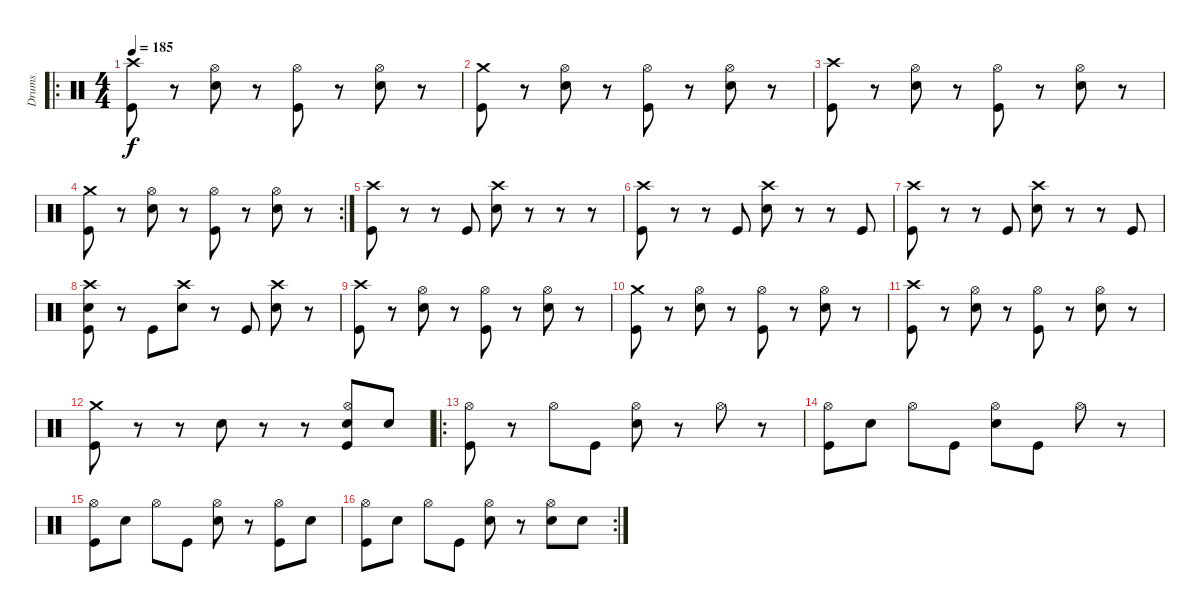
\track ("Drums" "Drums") {instrument percussion}
\staff {score}
\articulation defaults
\ro
\ts (4 4)
\tempo 185
\clef neutral
\ks c
("Crash high (hit)" "Kick (hit)").8{dy f} r.8 ("Hi-Hat (open)" "Snare (hit) 2").8 r.8 ("Hi-Hat (open)" "Kick (hit)").8 r.8 ("Hi-Hat (open)" "Snare (hit) 2").8 r.8 |
("Crash medium (hit)" "Kick (hit)").8 r.8 ("Hi-Hat (open)" "Snare (hit) 2").8 r.8 ("Hi-Hat (open)" "Kick (hit)").8 r.8 ("Hi-Hat (open)" "Snare (hit) 2").8 r.8 |
("Crash high (hit)" "Kick (hit)").8 r.8 ("Hi-Hat (open)" "Snare (hit) 2").8 r.8 ("Hi-Hat (open)" "Kick (hit)").8 r.8 ("Hi-Hat (open)" "Snare (hit) 2").8 r.8 |
\rc 2
("Crash medium (hit)" "Kick (hit)").8 r.8 ("Hi-Hat (open)" "Snare (hit) 2").8 r.8 ("Hi-Hat (open)" "Kick (hit)").8 r.8 ("Hi-Hat (open)" "Snare (hit) 2").8 r.8 |
("Crash high (hit)" "Kick (hit)").8 r.8 r.8 "Kick (hit)".8 ("Crash high (hit)" "Snare (hit) 2").8 r.8 r.8 r.8 |
("Crash high (hit)" "Kick (hit)").8 r.8 r.8 "Kick (hit)".8 ("Crash high (hit)" "Snare (hit) 2").8 r.8 r.8 "Kick (hit)".8 |
("Crash high (hit)" "Kick (hit)").8 r.8 r.8 "Kick (hit)".8 ("Crash high (hit)" "Snare (hit) 2").8 r.8 r.8 "Kick (hit)".8 |
("Crash high (hit)" "Snare (hit) 2" "Kick (hit)").8 r.8 "Kick (hit)".8 ("Crash high (hit)" "Snare (hit) 2").8 r.8 "Kick (hit)".8 ("Crash high (hit)" "Snare (hit) 2").8 r.8 |
("Crash high (hit)" "Kick (hit)").8 r.8 ("Hi-Hat (open)" "Snare (hit) 2").8 r.8 ("Hi-Hat (open)" "Kick (hit)").8 r.8 ("Hi-Hat (open)" "Snare (hit) 2").8 r.8 |
("Crash medium (hit)" "Kick (hit)").8 r.8 ("Hi-Hat (open)" "Snare (hit) 2").8 r.8 ("Hi-Hat (open)" "Kick (hit)").8 r.8 ("Hi-Hat (open)" "Snare (hit) 2").8 r.8 |
("Crash high (hit)" "Kick (hit)").8 r.8 ("Hi-Hat (open)" "Snare (hit) 2").8 r.8 ("Hi-Hat (open)" "Kick (hit)").8 r.8 ("Hi-Hat (open)" "Snare (hit) 2").8 r.8 |
("Crash medium (hit)" "Kick (hit)").8 r.8 r.8 "Snare (hit) 2".8 r.8 r.8 ("Hi-Hat (open)" "Snare (hit) 2" "Kick (hit)").8 "Snare (hit) 2".8 |
\ro
("Hi-Hat (open)" "Kick (hit)").8 r.8 "Hi-Hat (open)".8 "Kick (hit)".8 ("Hi-Hat (open)" "Snare (hit) 2").8 r.8 "Hi-Hat (open)".8 r.8 |
("Hi-Hat (open)" "Kick (hit)").8 "Snare (hit) 2".8 "Hi-Hat (open)".8 "Kick (hit)".8 ("Hi-Hat (open)" "Snare (hit) 2").8 "Kick (hit)".8 "Hi-Hat (open)".8 r.8 |
("Hi-Hat (open)" "Kick (hit)").8 "Snare (hit) 2".8 "Hi-Hat (open)".8 "Kick (hit)".8 ("Hi-Hat (open)" "Snare (hit) 2").8 r.8 ("Hi-Hat (open)" "Kick (hit)").8 "Snare (hit) 2".8 |
\rc 2
("Hi-Hat (open)" "Kick (hit)").8 "Snare (hit) 2".8 "Hi-Hat (open)".8 "Kick (hit)".8 ("Hi-Hat (open)" "Snare (hit) 2").8 r.8 ("Hi-Hat (open)" "Snare (hit) 2").8 "Snare (hit) 2".8
